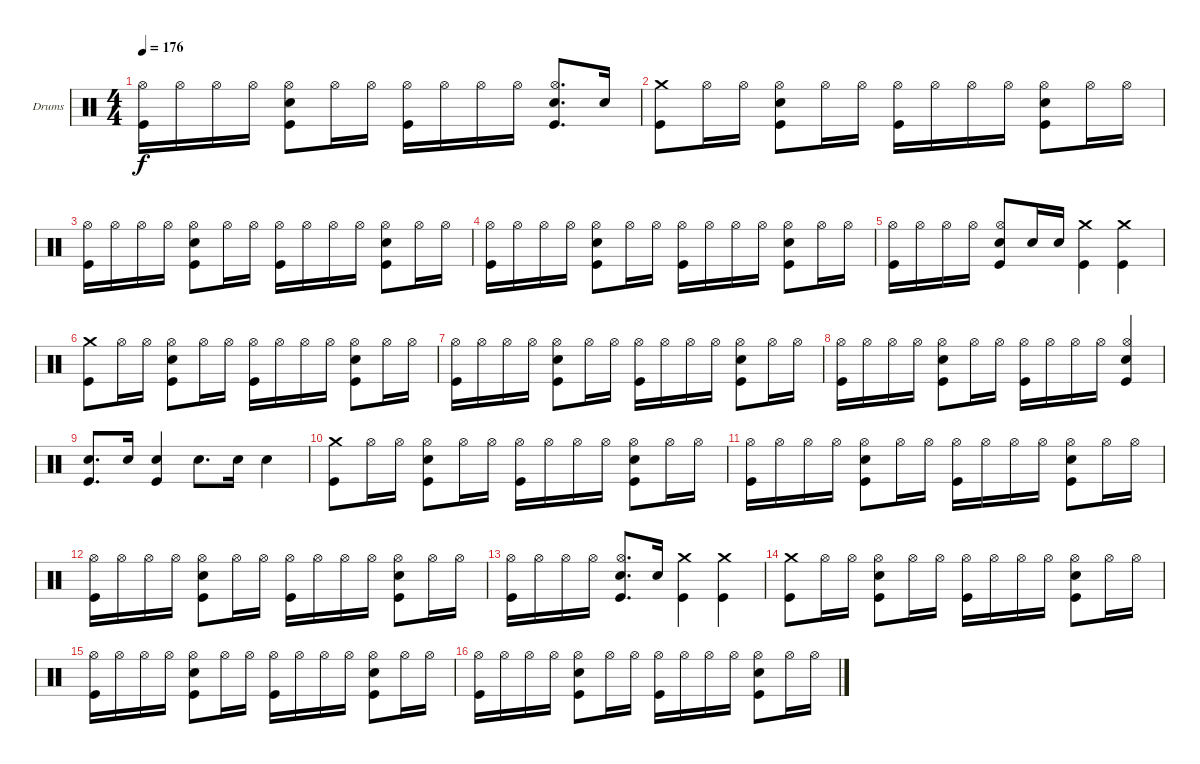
\bracketExtendMode groupsimilarinstruments
\firstSystemTrackNameOrientation horizontal
\otherSystemsTrackNameOrientation horizontal
\track ("Drums" "Drums") {instrument percussion}
\staff {score}
\articulation defaults
\ts (4 4)
\tempo 176
\clef neutral
\ks c
("Kick (hit)" "Hi-Hat (open)").16{dy f} "Hi-Hat (open)".16 "Hi-Hat (open)".16 "Hi-Hat (open)".16 ("Snare (hit) 2" "Kick (hit)" "Hi-Hat (open)").8 "Hi-Hat (open)".16 "Hi-Hat (open)".16 ("Kick (hit)" "Hi-Hat (open)").16 "Hi-Hat (open)".16 "Hi-Hat (open)".16 "Hi-Hat (open)".16 ("Snare (hit) 2" "Kick (hit)" "Hi-Hat (open)").8{d} "Snare (hit) 2".16 |
("Crash medium (hit)" "Kick (hit)").8 "Hi-Hat (open)".16 "Hi-Hat (open)".16 ("Snare (hit) 2" "Kick (hit)" "Hi-Hat (open)").8 "Hi-Hat (open)".16 "Hi-Hat (open)".16 ("Kick (hit)" "Hi-Hat (open)").16 "Hi-Hat (open)".16 "Hi-Hat (open)".16 "Hi-Hat (open)".16 ("Snare (hit) 2" "Kick (hit)" "Hi-Hat (open)").8 "Hi-Hat (open)".16 "Hi-Hat (open)".16 |
("Kick (hit)" "Hi-Hat (open)").16 "Hi-Hat (open)".16 "Hi-Hat (open)".16 "Hi-Hat (open)".16 ("Snare (hit) 2" "Kick (hit)" "Hi-Hat (open)").8 "Hi-Hat (open)".16 "Hi-Hat (open)".16 ("Kick (hit)" "Hi-Hat (open)").16 "Hi-Hat (open)".16 "Hi-Hat (open)".16 "Hi-Hat (open)".16 ("Snare (hit) 2" "Kick (hit)" "Hi-Hat (open)").8 "Hi-Hat (open)".16 "Hi-Hat (open)".16 |
("Kick (hit)" "Hi-Hat (open)").16 "Hi-Hat (open)".16 "Hi-Hat (open)".16 "Hi-Hat (open)".16 ("Snare (hit) 2" "Kick (hit)" "Hi-Hat (open)").8 "Hi-Hat (open)".16 "Hi-Hat (open)".16 ("Kick (hit)" "Hi-Hat (open)").16 "Hi-Hat (open)".16 "Hi-Hat (open)".16 "Hi-Hat (open)".16 ("Snare (hit) 2" "Kick (hit)" "Hi-Hat (open)").8 "Hi-Hat (open)".16 "Hi-Hat (open)".16 |
("Kick (hit)" "Hi-Hat (open)").16 "Hi-Hat (open)".16 "Hi-Hat (open)".16 "Hi-Hat (open)".16 ("Snare (hit) 2" "Kick (hit)" "Hi-Hat (open)").8 "Snare (hit) 2".16 "Snare (hit) 2".16 ("Crash medium (hit)" "Kick (hit)").4 ("Crash medium (hit)" "Kick (hit)").4 |
("Crash medium (hit)" "Kick (hit)").8 "Hi-Hat (open)".16 "Hi-Hat (open)".16 ("Snare (hit) 2" "Kick (hit)" "Hi-Hat (open)").8 "Hi-Hat (open)".16 "Hi-Hat (open)".16 ("Kick (hit)" "Hi-Hat (open)").16 "Hi-Hat (open)".16 "Hi-Hat (open)".16 "Hi-Hat (open)".16 ("Snare (hit) 2" "Kick (hit)" "Hi-Hat (open)").8 "Hi-Hat (open)".16 "Hi-Hat (open)".16 |
("Kick (hit)" "Hi-Hat (open)").16 "Hi-Hat (open)".16 "Hi-Hat (open)".16 "Hi-Hat (open)".16 ("Snare (hit) 2" "Kick (hit)" "Hi-Hat (open)").8 "Hi-Hat (open)".16 "Hi-Hat (open)".16 ("Kick (hit)" "Hi-Hat (open)").16 "Hi-Hat (open)".16 "Hi-Hat (open)".16 "Hi-Hat (open)".16 ("Snare (hit) 2" "Kick (hit)" "Hi-Hat (open)").8 "Hi-Hat (open)".16 "Hi-Hat (open)".16 |
("Kick (hit)" "Hi-Hat (open)").16 "Hi-Hat (open)".16 "Hi-Hat (open)".16 "Hi-Hat (open)".16 ("Snare (hit) 2" "Kick (hit)" "Hi-Hat (open)").8 "Hi-Hat (open)".16 "Hi-Hat (open)".16 ("Kick (hit)" "Hi-Hat (open)").16 "Hi-Hat (open)".16 "Hi-Hat (open)".16 "Hi-Hat (open)".16 ("Snare (hit) 2" "Kick (hit)" "Hi-Hat (open)").4 |
("Snare (hit) 2" "Kick (hit)").8{d} "Snare (hit) 2".16 ("Snare (hit) 2" "Kick (hit)").4 "Snare (hit) 2".8{d} "Snare (hit) 2".16 "Snare (hit) 2".4 |
("Crash medium (hit)" "Kick (hit)").8 "Hi-Hat (open)".16 "Hi-Hat (open)".16 ("Snare (hit) 2" "Kick (hit)" "Hi-Hat (open)").8 "Hi-Hat (open)".16 "Hi-Hat (open)".16 ("Kick (hit)" "Hi-Hat (open)").16 "Hi-Hat (open)".16 "Hi-Hat (open)".16 "Hi-Hat (open)".16 ("Snare (hit) 2" "Kick (hit)" "Hi-Hat (open)").8 "Hi-Hat (open)".16 "Hi-Hat (open)".16 |
("Kick (hit)" "Hi-Hat (open)").16 "Hi-Hat (open)".16 "Hi-Hat (open)".16 "Hi-Hat (open)".16 ("Snare (hit) 2" "Kick (hit)" "Hi-Hat (open)").8 "Hi-Hat (open)".16 "Hi-Hat (open)".16 ("Kick (hit)" "Hi-Hat (open)").16 "Hi-Hat (open)".16 "Hi-Hat (open)".16 "Hi-Hat (open)".16 ("Snare (hit) 2" "Kick (hit)" "Hi-Hat (open)").8 "Hi-Hat (open)".16 "Hi-Hat (open)".16 |
("Kick (hit)" "Hi-Hat (open)").16 "Hi-Hat (open)".16 "Hi-Hat (open)".16 "Hi-Hat (open)".16 ("Snare (hit) 2" "Kick (hit)" "Hi-Hat (open)").8 "Hi-Hat (open)".16 "Hi-Hat (open)".16 ("Kick (hit)" "Hi-Hat (open)").16 "Hi-Hat (open)".16 "Hi-Hat (open)".16 "Hi-Hat (open)".16 ("Snare (hit) 2" "Kick (hit)" "Hi-Hat (open)").8 "Hi-Hat (open)".16 "Hi-Hat (open)".16 |
("Kick (hit)" "Hi-Hat (open)").16 "Hi-Hat (open)".16 "Hi-Hat (open)".16 "Hi-Hat (open)".16 ("Snare (hit) 2" "Kick (hit)" "Hi-Hat (open)").8{d} "Snare (hit) 2".16 ("Crash medium (hit)" "Kick (hit)").4 ("Crash medium (hit)" "Kick (hit)").4 |
("Crash medium (hit)" "Kick (hit)").8 "Hi-Hat (open)".16 "Hi-Hat (open)".16 ("Snare (hit) 2" "Kick (hit)" "Hi-Hat (open)").8 "Hi-Hat (open)".16 "Hi-Hat (open)".16 ("Kick (hit)" "Hi-Hat (open)").16 "Hi-Hat (open)".16 "Hi-Hat (open)".16 "Hi-Hat (open)".16 ("Snare (hit) 2" "Kick (hit)" "Hi-Hat (open)").8 "Hi-Hat (open)".16 "Hi-Hat (open)".16 |
("Kick (hit)" "Hi-Hat (open)").16 "Hi-Hat (open)".16 "Hi-Hat (open)".16 "Hi-Hat (open)".16 ("Snare (hit) 2" "Kick (hit)" "Hi-Hat (open)").8 "Hi-Hat (open)".16 "Hi-Hat (open)".16 ("Kick (hit)" "Hi-Hat (open)").16 "Hi-Hat (open)".16 "Hi-Hat (open)".16 "Hi-Hat (open)".16 ("Snare (hit) 2" "Kick (hit)" "Hi-Hat (open)").8 "Hi-Hat (open)".16 "Hi-Hat (open)".16 |
("Kick (hit)" "Hi-Hat (open)").16 "Hi-Hat (open)".16 "Hi-Hat (open)".16 "Hi-Hat (open)".16 ("Snare (hit) 2" "Kick (hit)" "Hi-Hat (open)").8 "Hi-Hat (open)".16 "Hi-Hat (open)".16 ("Kick (hit)" "Hi-Hat (open)").16 "Hi-Hat (open)".16 "Hi-Hat (open)".16 "Hi-Hat (open)".16 ("Snare (hit) 2" "Kick (hit)" "Hi-Hat (open)").8 "Hi-Hat (open)".16 "Hi-Hat (open)".16
